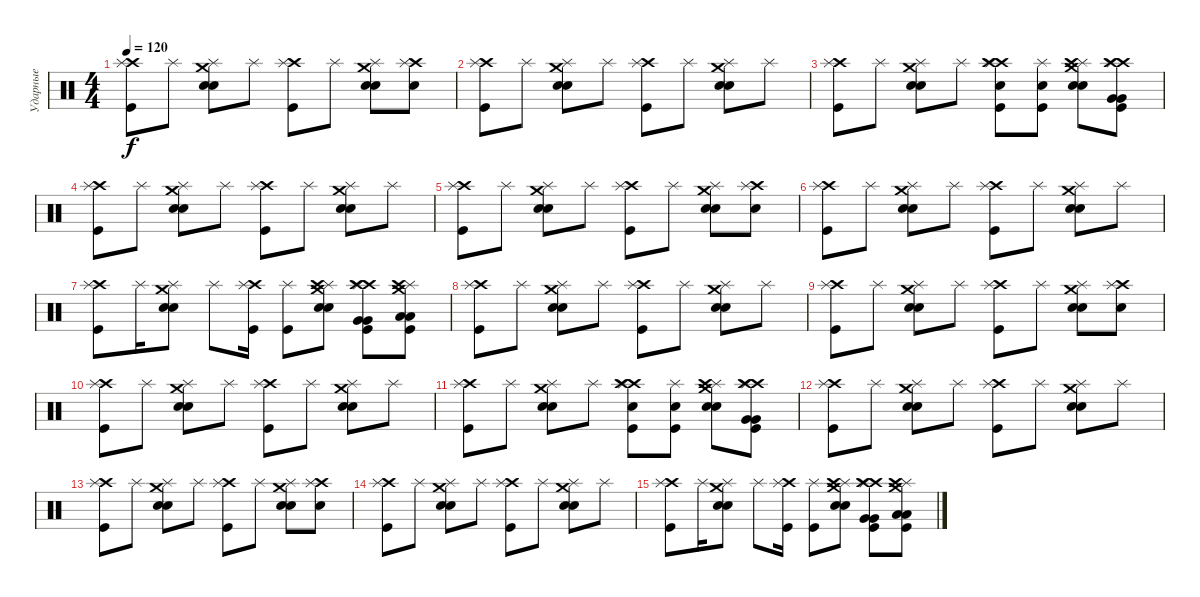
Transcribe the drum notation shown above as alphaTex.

\track ("Ударные" "Ударные") {instrument percussion}
\staff {score}
\articulation defaults
\ts (4 4)
\tempo 120
\clef neutral
\ks c
("Crash high (hit)" "Splash (hit)" "Kick (hit)").8{dy f} "Splash (hit)".8 ("Crash medium (hit)" "Splash (hit)" "Electric Snare (hit)" "Electric Snare (hit)").8 "Splash (hit)".8 ("Crash high (hit)" "Splash (hit)" "Kick (hit)").8 "Splash (hit)".8 ("Crash medium (hit)" "Splash (hit)" "Electric Snare (hit)" "Electric Snare (hit)").8 ("Crash high (hit)" "Splash (hit)" "Electric Snare (hit)").8 |
("Crash high (hit)" "Splash (hit)" "Kick (hit)").8 "Splash (hit)".8 ("Crash medium (hit)" "Splash (hit)" "Electric Snare (hit)" "Electric Snare (hit)").8 "Splash (hit)".8 ("Crash high (hit)" "Splash (hit)" "Kick (hit)").8 "Splash (hit)".8 ("Crash medium (hit)" "Splash (hit)" "Electric Snare (hit)" "Electric Snare (hit)").8 "Splash (hit)".8 |
("Crash high (hit)" "Splash (hit)" "Kick (hit)").8 "Splash (hit)".8 ("Crash medium (hit)" "Splash (hit)" "Electric Snare (hit)" "Electric Snare (hit)").8 "Splash (hit)".8 ("Crash high (hit)" "Splash (hit)" "Crash high (hit)" "Electric Snare (hit)" "Kick (hit)").8 ("Splash (hit)" "Electric Snare (hit)" "Kick (hit)").8 ("Crash medium (hit)" "Splash (hit)" "Crash high (hit)" "Electric Snare (hit)" "Electric Snare (hit)").8 ("Crash high (hit)" "Splash (hit)" "Crash high (hit)" "Very Low Tom (hit)" "Very Low Tom (hit)" "Kick (hit)").8 |
("Crash high (hit)" "Splash (hit)" "Kick (hit)").8 "Splash (hit)".8 ("Crash medium (hit)" "Splash (hit)" "Electric Snare (hit)" "Electric Snare (hit)").8 "Splash (hit)".8 ("Crash high (hit)" "Splash (hit)" "Kick (hit)").8 "Splash (hit)".8 ("Crash medium (hit)" "Splash (hit)" "Electric Snare (hit)" "Electric Snare (hit)").8 "Splash (hit)".8 |
("Crash high (hit)" "Splash (hit)" "Kick (hit)").8 "Splash (hit)".8 ("Crash medium (hit)" "Splash (hit)" "Electric Snare (hit)" "Electric Snare (hit)").8 "Splash (hit)".8 ("Crash high (hit)" "Splash (hit)" "Kick (hit)").8 "Splash (hit)".8 ("Crash medium (hit)" "Splash (hit)" "Electric Snare (hit)" "Electric Snare (hit)").8 ("Crash high (hit)" "Splash (hit)" "Electric Snare (hit)").8 |
("Crash high (hit)" "Splash (hit)" "Kick (hit)").8 "Splash (hit)".8 ("Crash medium (hit)" "Splash (hit)" "Electric Snare (hit)" "Electric Snare (hit)").8 "Splash (hit)".8 ("Crash high (hit)" "Splash (hit)" "Kick (hit)").8 "Splash (hit)".8 ("Crash medium (hit)" "Splash (hit)" "Electric Snare (hit)" "Electric Snare (hit)").8 "Splash (hit)".8 |
("Crash high (hit)" "Splash (hit)" "Kick (hit)").8 "Splash (hit)".16 ("Crash medium (hit)" "Splash (hit)" "Electric Snare (hit)" "Electric Snare (hit)").8 "Splash (hit)".8 ("Crash high (hit)" "Splash (hit)" "Kick (hit)").16 ("Splash (hit)" "Kick (hit)").8 ("Crash medium (hit)" "Splash (hit)" "Crash high (hit)" "Electric Snare (hit)" "Electric Snare (hit)").8 ("Crash high (hit)" "Splash (hit)" "Crash high (hit)" "Very Low Tom (hit)" "Very Low Tom (hit)" "Kick (hit)").8 ("Crash medium (hit)" "Splash (hit)" "Crash high (hit)" "Low Floor Tom (hit)" "Low Floor Tom (hit)" "Kick (hit)").8 |
("Crash high (hit)" "Splash (hit)" "Kick (hit)").8 "Splash (hit)".8 ("Crash medium (hit)" "Splash (hit)" "Electric Snare (hit)" "Electric Snare (hit)").8 "Splash (hit)".8 ("Crash high (hit)" "Splash (hit)" "Kick (hit)").8 "Splash (hit)".8 ("Crash medium (hit)" "Splash (hit)" "Electric Snare (hit)" "Electric Snare (hit)").8 "Splash (hit)".8 |
("Crash high (hit)" "Splash (hit)" "Kick (hit)").8 "Splash (hit)".8 ("Crash medium (hit)" "Splash (hit)" "Electric Snare (hit)" "Electric Snare (hit)").8 "Splash (hit)".8 ("Crash high (hit)" "Splash (hit)" "Kick (hit)").8 "Splash (hit)".8 ("Crash medium (hit)" "Splash (hit)" "Electric Snare (hit)" "Electric Snare (hit)").8 ("Crash high (hit)" "Splash (hit)" "Electric Snare (hit)").8 |
("Crash high (hit)" "Splash (hit)" "Kick (hit)").8 "Splash (hit)".8 ("Crash medium (hit)" "Splash (hit)" "Electric Snare (hit)" "Electric Snare (hit)").8 "Splash (hit)".8 ("Crash high (hit)" "Splash (hit)" "Kick (hit)").8 "Splash (hit)".8 ("Crash medium (hit)" "Splash (hit)" "Electric Snare (hit)" "Electric Snare (hit)").8 "Splash (hit)".8 |
("Crash high (hit)" "Splash (hit)" "Kick (hit)").8 "Splash (hit)".8 ("Crash medium (hit)" "Splash (hit)" "Electric Snare (hit)" "Electric Snare (hit)").8 "Splash (hit)".8 ("Crash high (hit)" "Splash (hit)" "Crash high (hit)" "Electric Snare (hit)" "Kick (hit)").8 ("Splash (hit)" "Electric Snare (hit)" "Kick (hit)").8 ("Crash medium (hit)" "Splash (hit)" "Crash high (hit)" "Electric Snare (hit)" "Electric Snare (hit)").8 ("Crash high (hit)" "Splash (hit)" "Crash high (hit)" "Very Low Tom (hit)" "Very Low Tom (hit)" "Kick (hit)").8 |
("Crash high (hit)" "Splash (hit)" "Kick (hit)").8 "Splash (hit)".8 ("Crash medium (hit)" "Splash (hit)" "Electric Snare (hit)" "Electric Snare (hit)").8 "Splash (hit)".8 ("Crash high (hit)" "Splash (hit)" "Kick (hit)").8 "Splash (hit)".8 ("Crash medium (hit)" "Splash (hit)" "Electric Snare (hit)" "Electric Snare (hit)").8 "Splash (hit)".8 |
("Crash high (hit)" "Splash (hit)" "Kick (hit)").8 "Splash (hit)".8 ("Crash medium (hit)" "Splash (hit)" "Electric Snare (hit)" "Electric Snare (hit)").8 "Splash (hit)".8 ("Crash high (hit)" "Splash (hit)" "Kick (hit)").8 "Splash (hit)".8 ("Crash medium (hit)" "Splash (hit)" "Electric Snare (hit)" "Electric Snare (hit)").8 ("Crash high (hit)" "Splash (hit)" "Electric Snare (hit)").8 |
("Crash high (hit)" "Splash (hit)" "Kick (hit)").8 "Splash (hit)".8 ("Crash medium (hit)" "Splash (hit)" "Electric Snare (hit)" "Electric Snare (hit)").8 "Splash (hit)".8 ("Crash high (hit)" "Splash (hit)" "Kick (hit)").8 "Splash (hit)".8 ("Crash medium (hit)" "Splash (hit)" "Electric Snare (hit)" "Electric Snare (hit)").8 "Splash (hit)".8 |
("Crash high (hit)" "Splash (hit)" "Kick (hit)").8 "Splash (hit)".16 ("Crash medium (hit)" "Splash (hit)" "Electric Snare (hit)" "Electric Snare (hit)").8 "Splash (hit)".8 ("Crash high (hit)" "Splash (hit)" "Kick (hit)").16 ("Splash (hit)" "Kick (hit)").8 ("Crash medium (hit)" "Splash (hit)" "Crash high (hit)" "Electric Snare (hit)" "Electric Snare (hit)").8 ("Crash high (hit)" "Splash (hit)" "Crash high (hit)" "Very Low Tom (hit)" "Very Low Tom (hit)" "Kick (hit)").8 ("Crash medium (hit)" "Splash (hit)" "Crash high (hit)" "Low Floor Tom (hit)" "Low Floor Tom (hit)" "Kick (hit)").8
